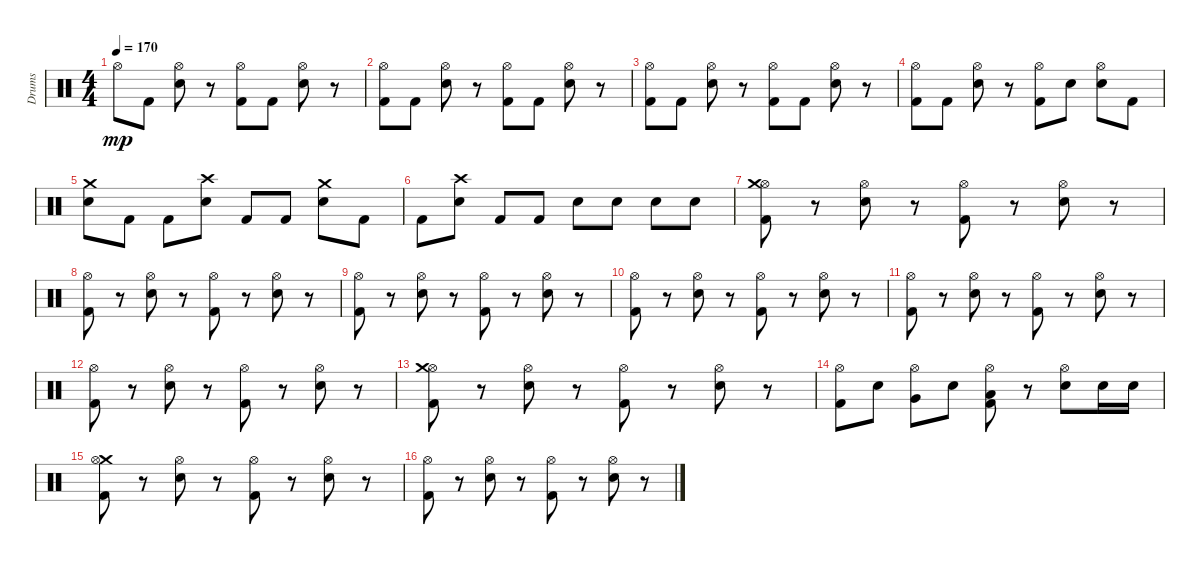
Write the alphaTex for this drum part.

\track ("Drums" "Drums") {instrument percussion}
\staff {score}
\articulation defaults
\ts (4 4)
\tempo 170
\clef neutral
\ks c "Hi-Hat (open)".8{dy mp} "Kick (hit) 2".8
("Hi-Hat (open)" "Electric Snare (hit)").8 r.8 ("Hi-Hat (open)" "Kick (hit) 2").8 "Kick (hit) 2".8 ("Hi-Hat (open)" "Electric Snare (hit)").8 r.8 |
("Hi-Hat (open)" "Kick (hit) 2").8 "Kick (hit) 2".8 ("Hi-Hat (open)" "Electric Snare (hit)").8 r.8 ("Kick (hit) 2" "Hi-Hat (open)").8 "Kick (hit) 2".8 ("Electric Snare (hit)" "Hi-Hat (open)").8 r.8 |
("Hi-Hat (open)" "Kick (hit) 2").8 "Kick (hit) 2".8 ("Hi-Hat (open)" "Electric Snare (hit)").8 r.8 ("Hi-Hat (open)" "Kick (hit) 2").8 "Kick (hit) 2".8 ("Electric Snare (hit)" "Hi-Hat (open)").8 r.8 |
("Hi-Hat (open)" "Kick (hit) 2").8 "Kick (hit) 2".8 ("Hi-Hat (open)" "Electric Snare (hit)").8 r.8 ("Kick (hit) 2" "Hi-Hat (open)").8 "Electric Snare (hit)".8 ("Electric Snare (hit)" "Hi-Hat (open)").8 "Kick (hit) 2".8 |
("Electric Snare (hit)" "Crash medium (hit)").8 "Kick (hit) 2".8 "Kick (hit) 2".8 ("Electric Snare (hit)" "Crash high (hit)").8 "Kick (hit) 2".8 "Kick (hit) 2".8 ("Electric Snare (hit)" "Crash medium (hit)").8 "Kick (hit) 2".8 |
"Kick (hit) 2".8 ("Crash high (hit)" "Electric Snare (hit)").8 "Kick (hit) 2".8 "Kick (hit) 2".8 "Electric Snare (hit)".8 "Electric Snare (hit)".8 "Electric Snare (hit)".8 "Electric Snare (hit)".8 |
("Hi-Hat (open)" "Crash medium (hit)" "Kick (hit) 2").8 r.8 ("Hi-Hat (open)" "Electric Snare (hit)").8 r.8 ("Kick (hit) 2" "Hi-Hat (open)").8 r.8 ("Hi-Hat (open)" "Electric Snare (hit)").8 r.8 |
("Kick (hit) 2" "Hi-Hat (open)").8 r.8 ("Electric Snare (hit)" "Hi-Hat (open)").8 r.8 ("Hi-Hat (open)" "Kick (hit) 2").8 r.8 ("Electric Snare (hit)" "Hi-Hat (open)").8 r.8 |
("Hi-Hat (open)" "Kick (hit) 2").8 r.8 ("Electric Snare (hit)" "Hi-Hat (open)").8 r.8 ("Hi-Hat (open)" "Kick (hit) 2").8 r.8 ("Hi-Hat (open)" "Electric Snare (hit)").8 r.8 |
("Hi-Hat (open)" "Kick (hit) 2").8 r.8 ("Electric Snare (hit)" "Hi-Hat (open)").8 r.8 ("Hi-Hat (open)" "Kick (hit) 2").8 r.8 ("Electric Snare (hit)" "Hi-Hat (open)").8 r.8 |
("Hi-Hat (open)" "Kick (hit) 2").8 r.8 ("Electric Snare (hit)" "Hi-Hat (open)").8 r.8 ("Hi-Hat (open)" "Kick (hit) 2").8 r.8 ("Hi-Hat (open)" "Electric Snare (hit)").8 r.8 |
("Hi-Hat (open)" "Kick (hit) 2").8 r.8 ("Electric Snare (hit)" "Hi-Hat (open)").8 r.8 ("Hi-Hat (open)" "Kick (hit) 2").8 r.8 ("Electric Snare (hit)" "Hi-Hat (open)").8 r.8 |
("Hi-Hat (open)" "Kick (hit) 2" "Crash medium (hit)").8 r.8 ("Hi-Hat (open)" "Electric Snare (hit)").8 r.8 ("Hi-Hat (open)" "Kick (hit) 2").8 r.8 ("Hi-Hat (open)" "Electric Snare (hit)").8 r.8 |
("Hi-Hat (open)" "Kick (hit) 2").8 "Electric Snare (hit)".8 ("Hi-Hat (open)" "Very Low Tom (hit)").8 "Electric Snare (hit)".8 ("Low Floor Tom (hit)" "Kick (hit) 2" "Hi-Hat (open)").8 r.8 ("Hi-Hat (open)" "Electric Snare (hit)").8 "Electric Snare (hit)".16 "Electric Snare (hit)".16 |
("Crash medium (hit)" "Kick (hit) 2" "Hi-Hat (open)").8 r.8 ("Electric Snare (hit)" "Hi-Hat (open)").8 r.8 ("Kick (hit) 2" "Hi-Hat (open)").8 r.8 ("Electric Snare (hit)" "Hi-Hat (open)").8 r.8 |
("Kick (hit) 2" "Hi-Hat (open)").8 r.8 ("Hi-Hat (open)" "Electric Snare (hit)").8 r.8 ("Hi-Hat (open)" "Kick (hit) 2").8 r.8 ("Hi-Hat (open)" "Electric Snare (hit)").8 r.8
